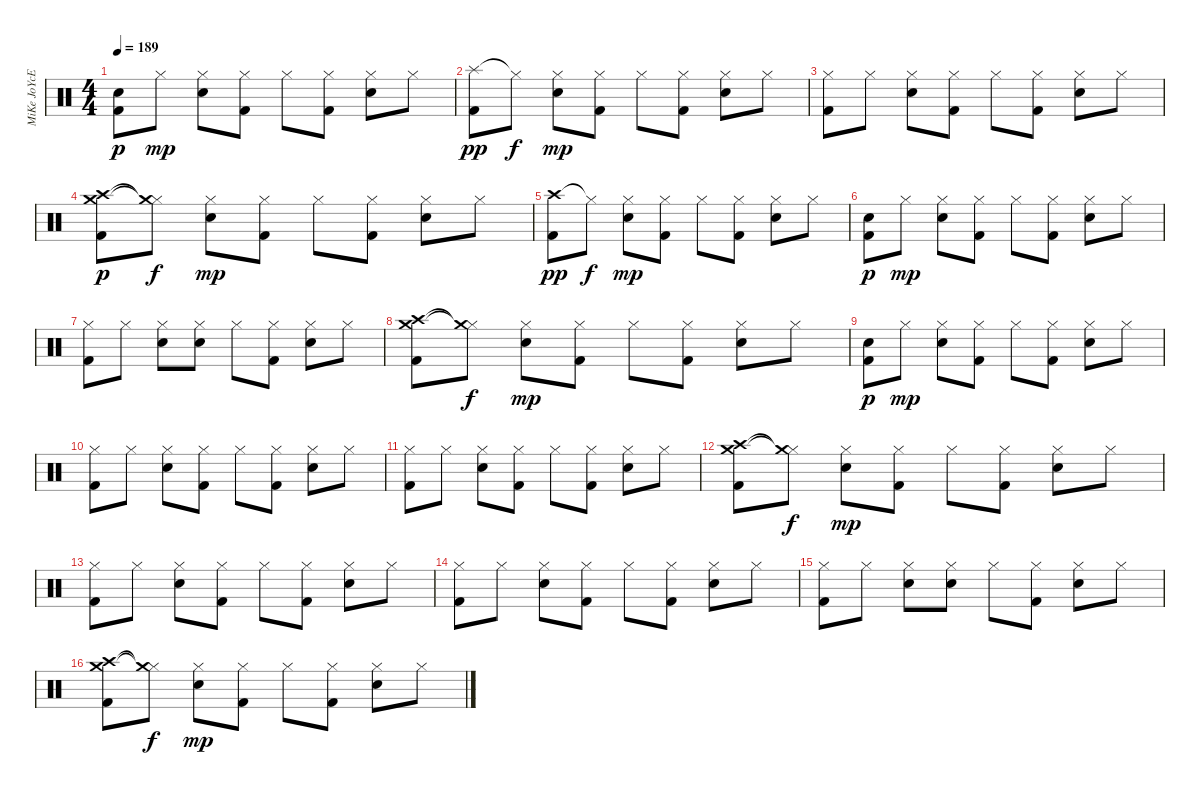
\track ("MiKe JoYcE" "MiKe JoYcE") {instrument percussion}
\staff {score}
\articulation defaults
\ts (4 4)
\tempo 189
\clef neutral
\ks c
("Metronome (bell)" "Kick (hit) 2").8{dy p} "Hi-Hat (closed)".8{dy mp} ("Hi-Hat (closed)" "Electric Snare (hit)").8 ("Hi-Hat (closed)" "Kick (hit) 2").8 "Hi-Hat (closed)".8 ("Hi-Hat (closed)" "Kick (hit) 2").8 ("Hi-Hat (closed)" "Electric Snare (hit)").8 "Hi-Hat (closed)".8 |
("Splash (hit)" "Kick (hit) 2").8{dy pp} "Hi-Hat (closed)"{t}.8{dy f} ("Hi-Hat (closed)" "Electric Snare (hit)").8{dy mp} ("Hi-Hat (closed)" "Kick (hit) 2").8 "Hi-Hat (closed)".8 ("Hi-Hat (closed)" "Kick (hit) 2").8 ("Hi-Hat (closed)" "Electric Snare (hit)").8 "Hi-Hat (closed)".8 |
("Hi-Hat (closed)" "Kick (hit) 2").8 "Hi-Hat (closed)".8 ("Hi-Hat (closed)" "Electric Snare (hit)").8 ("Hi-Hat (closed)" "Kick (hit) 2").8 "Hi-Hat (closed)".8 ("Hi-Hat (closed)" "Kick (hit) 2").8 ("Hi-Hat (closed)" "Electric Snare (hit)").8 "Hi-Hat (closed)".8 |
("Crash high (hit)" "Crash medium (hit)" "Kick (hit) 2").8{dy p} ("Hi-Hat (closed)"{t} "Crash medium (hit)"{t}).8{dy f} ("Hi-Hat (closed)" "Electric Snare (hit)").8{dy mp} ("Hi-Hat (closed)" "Kick (hit) 2").8 "Hi-Hat (closed)".8 ("Hi-Hat (closed)" "Kick (hit) 2").8 ("Hi-Hat (closed)" "Electric Snare (hit)").8 "Hi-Hat (closed)".8 |
("Crash high (hit)" "Kick (hit) 2").8{dy pp} "Hi-Hat (closed)"{t}.8{dy f} ("Hi-Hat (closed)" "Electric Snare (hit)").8{dy mp} ("Hi-Hat (closed)" "Kick (hit) 2").8 "Hi-Hat (closed)".8 ("Hi-Hat (closed)" "Kick (hit) 2").8 ("Hi-Hat (closed)" "Electric Snare (hit)").8 "Hi-Hat (closed)".8 |
("Metronome (bell)" "Kick (hit) 2").8{dy p} "Hi-Hat (closed)".8{dy mp} ("Hi-Hat (closed)" "Electric Snare (hit)").8 ("Hi-Hat (closed)" "Kick (hit) 2").8 "Hi-Hat (closed)".8 ("Hi-Hat (closed)" "Kick (hit) 2").8 ("Hi-Hat (closed)" "Electric Snare (hit)").8 "Hi-Hat (closed)".8 |
("Hi-Hat (closed)" "Kick (hit) 2").8 "Hi-Hat (closed)".8 ("Hi-Hat (closed)" "Electric Snare (hit)").8 ("Hi-Hat (closed)" "Electric Snare (hit)").8 "Hi-Hat (closed)".8 ("Hi-Hat (closed)" "Kick (hit) 2").8 ("Hi-Hat (closed)" "Electric Snare (hit)").8 "Hi-Hat (closed)".8 |
("Crash high (hit)" "Crash medium (hit)" "Kick (hit) 2").8 ("Hi-Hat (closed)"{t} "Crash medium (hit)"{t}).8{dy f} ("Hi-Hat (closed)" "Electric Snare (hit)").8{dy mp} ("Hi-Hat (closed)" "Kick (hit) 2").8 "Hi-Hat (closed)".8 ("Hi-Hat (closed)" "Kick (hit) 2").8 ("Hi-Hat (closed)" "Electric Snare (hit)").8 "Hi-Hat (closed)".8 |
("Metronome (bell)" "Kick (hit) 2").8{dy p} "Hi-Hat (closed)".8{dy mp} ("Hi-Hat (closed)" "Electric Snare (hit)").8 ("Hi-Hat (closed)" "Kick (hit) 2").8 "Hi-Hat (closed)".8 ("Hi-Hat (closed)" "Kick (hit) 2").8 ("Hi-Hat (closed)" "Electric Snare (hit)").8 "Hi-Hat (closed)".8 |
("Hi-Hat (closed)" "Kick (hit) 2").8 "Hi-Hat (closed)".8 ("Hi-Hat (closed)" "Electric Snare (hit)").8 ("Hi-Hat (closed)" "Kick (hit) 2").8 "Hi-Hat (closed)".8 ("Hi-Hat (closed)" "Kick (hit) 2").8 ("Hi-Hat (closed)" "Electric Snare (hit)").8 "Hi-Hat (closed)".8 |
("Hi-Hat (closed)" "Kick (hit) 2").8 "Hi-Hat (closed)".8 ("Hi-Hat (closed)" "Electric Snare (hit)").8 ("Hi-Hat (closed)" "Kick (hit) 2").8 "Hi-Hat (closed)".8 ("Hi-Hat (closed)" "Kick (hit) 2").8 ("Hi-Hat (closed)" "Electric Snare (hit)").8 "Hi-Hat (closed)".8 |
("Crash high (hit)" "Crash medium (hit)" "Kick (hit) 2").8 ("Hi-Hat (closed)"{t} "Crash medium (hit)"{t}).8{dy f} ("Hi-Hat (closed)" "Electric Snare (hit)").8{dy mp} ("Hi-Hat (closed)" "Kick (hit) 2").8 "Hi-Hat (closed)".8 ("Hi-Hat (closed)" "Kick (hit) 2").8 ("Hi-Hat (closed)" "Electric Snare (hit)").8 "Hi-Hat (closed)".8 |
("Hi-Hat (closed)" "Kick (hit) 2").8 "Hi-Hat (closed)".8 ("Hi-Hat (closed)" "Electric Snare (hit)").8 ("Hi-Hat (closed)" "Kick (hit) 2").8 "Hi-Hat (closed)".8 ("Hi-Hat (closed)" "Kick (hit) 2").8 ("Hi-Hat (closed)" "Electric Snare (hit)").8 "Hi-Hat (closed)".8 |
("Hi-Hat (closed)" "Kick (hit) 2").8 "Hi-Hat (closed)".8 ("Hi-Hat (closed)" "Electric Snare (hit)").8 ("Hi-Hat (closed)" "Kick (hit) 2").8 "Hi-Hat (closed)".8 ("Hi-Hat (closed)" "Kick (hit) 2").8 ("Hi-Hat (closed)" "Electric Snare (hit)").8 "Hi-Hat (closed)".8 |
("Hi-Hat (closed)" "Kick (hit) 2").8 "Hi-Hat (closed)".8 ("Hi-Hat (closed)" "Electric Snare (hit)").8 ("Hi-Hat (closed)" "Electric Snare (hit)").8 "Hi-Hat (closed)".8 ("Hi-Hat (closed)" "Kick (hit) 2").8 ("Hi-Hat (closed)" "Electric Snare (hit)").8 "Hi-Hat (closed)".8 |
("Crash high (hit)" "Crash medium (hit)" "Kick (hit) 2").8 ("Hi-Hat (closed)"{t} "Crash medium (hit)"{t}).8{dy f} ("Hi-Hat (closed)" "Electric Snare (hit)").8{dy mp} ("Hi-Hat (closed)" "Kick (hit) 2").8 "Hi-Hat (closed)".8 ("Hi-Hat (closed)" "Kick (hit) 2").8 ("Hi-Hat (closed)" "Electric Snare (hit)").8 "Hi-Hat (closed)".8
